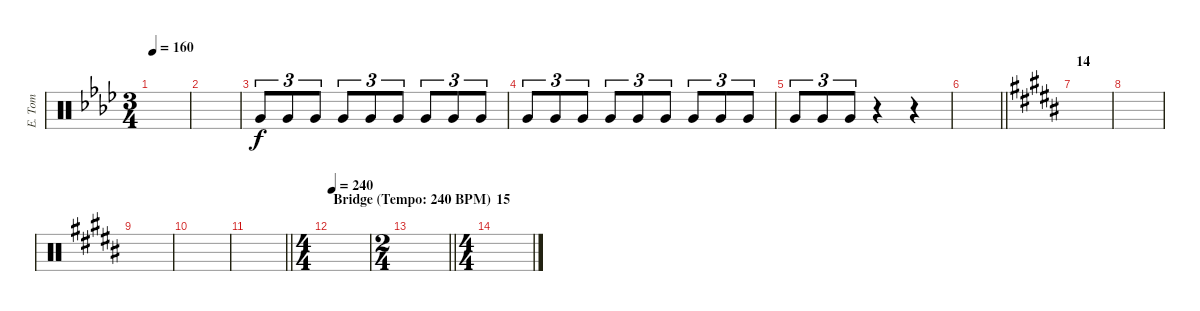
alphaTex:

\track ("E. Tom" "E. Tom") {instrument percussion}
\staff {score}
\articulation defaults
\ts (3 4)
\tempo 160
\clef neutral
\ks ab
|
|
"Very Low Tom (hit)".8{tu (3 2)} "Very Low Tom (hit)".8{tu (3 2)} "Very Low Tom (hit)".8{tu (3 2)} "Very Low Tom (hit)".8{tu (3 2)} "Very Low Tom (hit)".8{tu (3 2)} "Very Low Tom (hit)".8{tu (3 2)} "Very Low Tom (hit)".8{tu (3 2)} "Very Low Tom (hit)".8{tu (3 2)} "Very Low Tom (hit)".8{tu (3 2)} |
"Very Low Tom (hit)".8{tu (3 2)} "Very Low Tom (hit)".8{tu (3 2)} "Very Low Tom (hit)".8{tu (3 2)} "Very Low Tom (hit)".8{tu (3 2)} "Very Low Tom (hit)".8{tu (3 2)} "Very Low Tom (hit)".8{tu (3 2)} "Very Low Tom (hit)".8{tu (3 2)} "Very Low Tom (hit)".8{tu (3 2)} "Very Low Tom (hit)".8{tu (3 2)} |
"Very Low Tom (hit)".8{tu (3 2)} "Very Low Tom (hit)".8{tu (3 2)} "Very Low Tom (hit)".8{tu (3 2)} r.4 r.4 |
\barLineRight lightlight
|
\section ("" "14")
\ks b
|
|
|
|
\barLineRight lightlight
|
\ts (4 4)
\section ("" "Bridge (Tempo: 240 BPM)")
\tempo 240
|
\ts (2 4)
\barLineRight lightlight
|
\ts (4 4)
\section ("" "15")
